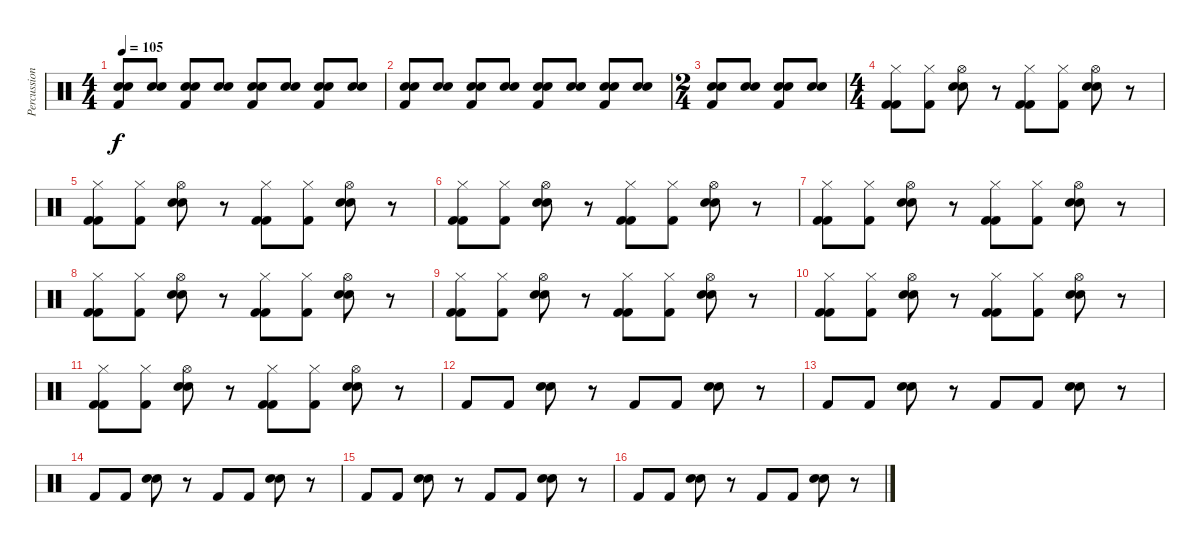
\track ("Percussions" "Percussion") {instrument percussion}
\staff {score}
\articulation defaults
\ts (4 4)
\tempo 105
\clef neutral
\ks c
("Electric Snare (hit)" "Electric Snare (hit)" "Kick (hit) 2").8{dy f} ("Electric Snare (hit)" "Electric Snare (hit)").8 ("Electric Snare (hit)" "Electric Snare (hit)" "Kick (hit) 2").8 ("Electric Snare (hit)" "Electric Snare (hit)").8 ("Electric Snare (hit)" "Electric Snare (hit)" "Kick (hit) 2").8 ("Electric Snare (hit)" "Electric Snare (hit)").8 ("Electric Snare (hit)" "Electric Snare (hit)" "Kick (hit) 2").8 ("Electric Snare (hit)" "Electric Snare (hit)").8 |
("Electric Snare (hit)" "Electric Snare (hit)" "Kick (hit) 2").8 ("Electric Snare (hit)" "Electric Snare (hit)").8 ("Electric Snare (hit)" "Electric Snare (hit)" "Kick (hit) 2").8 ("Electric Snare (hit)" "Electric Snare (hit)").8 ("Electric Snare (hit)" "Electric Snare (hit)" "Kick (hit) 2").8 ("Electric Snare (hit)" "Electric Snare (hit)").8 ("Electric Snare (hit)" "Electric Snare (hit)" "Kick (hit) 2").8 ("Electric Snare (hit)" "Electric Snare (hit)").8 |
\ts (2 4)
("Electric Snare (hit)" "Electric Snare (hit)" "Kick (hit) 2").8 ("Electric Snare (hit)" "Electric Snare (hit)").8 ("Electric Snare (hit)" "Electric Snare (hit)" "Kick (hit) 2").8 ("Electric Snare (hit)" "Electric Snare (hit)").8 |
\ts (4 4)
("Hi-Hat (closed)" "Kick (hit) 2" "Kick (hit) 2").8{volume 12} ("Hi-Hat (closed)" "Kick (hit) 2").8 ("Hi-Hat (open)" "Electric Snare (hit)" "Electric Snare (hit)").8 r.8 ("Hi-Hat (closed)" "Kick (hit) 2" "Kick (hit) 2").8 ("Hi-Hat (closed)" "Kick (hit) 2").8 ("Hi-Hat (open)" "Electric Snare (hit)" "Electric Snare (hit)").8 r.8 |
("Hi-Hat (closed)" "Kick (hit) 2" "Kick (hit) 2").8{volume 12} ("Hi-Hat (closed)" "Kick (hit) 2").8 ("Hi-Hat (open)" "Electric Snare (hit)" "Electric Snare (hit)").8 r.8 ("Hi-Hat (closed)" "Kick (hit) 2" "Kick (hit) 2").8 ("Hi-Hat (closed)" "Kick (hit) 2").8 ("Hi-Hat (open)" "Electric Snare (hit)" "Electric Snare (hit)").8 r.8 |
("Hi-Hat (closed)" "Kick (hit) 2" "Kick (hit) 2").8{volume 12} ("Hi-Hat (closed)" "Kick (hit) 2").8 ("Hi-Hat (open)" "Electric Snare (hit)" "Electric Snare (hit)").8 r.8 ("Hi-Hat (closed)" "Kick (hit) 2" "Kick (hit) 2").8 ("Hi-Hat (closed)" "Kick (hit) 2").8 ("Hi-Hat (open)" "Electric Snare (hit)" "Electric Snare (hit)").8 r.8 |
("Hi-Hat (closed)" "Kick (hit) 2" "Kick (hit) 2").8{volume 12} ("Hi-Hat (closed)" "Kick (hit) 2").8 ("Hi-Hat (open)" "Electric Snare (hit)" "Electric Snare (hit)").8 r.8 ("Hi-Hat (closed)" "Kick (hit) 2" "Kick (hit) 2").8 ("Hi-Hat (closed)" "Kick (hit) 2").8 ("Hi-Hat (open)" "Electric Snare (hit)" "Electric Snare (hit)").8 r.8 |
("Hi-Hat (closed)" "Kick (hit) 2" "Kick (hit) 2").8{volume 12} ("Hi-Hat (closed)" "Kick (hit) 2").8 ("Hi-Hat (open)" "Electric Snare (hit)" "Electric Snare (hit)").8 r.8 ("Hi-Hat (closed)" "Kick (hit) 2" "Kick (hit) 2").8 ("Hi-Hat (closed)" "Kick (hit) 2").8 ("Hi-Hat (open)" "Electric Snare (hit)" "Electric Snare (hit)").8 r.8 |
("Hi-Hat (closed)" "Kick (hit) 2" "Kick (hit) 2").8{volume 12} ("Hi-Hat (closed)" "Kick (hit) 2").8 ("Hi-Hat (open)" "Electric Snare (hit)" "Electric Snare (hit)").8 r.8 ("Hi-Hat (closed)" "Kick (hit) 2" "Kick (hit) 2").8 ("Hi-Hat (closed)" "Kick (hit) 2").8 ("Hi-Hat (open)" "Electric Snare (hit)" "Electric Snare (hit)").8 r.8 |
("Hi-Hat (closed)" "Kick (hit) 2" "Kick (hit) 2").8{volume 12} ("Hi-Hat (closed)" "Kick (hit) 2").8 ("Hi-Hat (open)" "Electric Snare (hit)" "Electric Snare (hit)").8 r.8 ("Hi-Hat (closed)" "Kick (hit) 2" "Kick (hit) 2").8 ("Hi-Hat (closed)" "Kick (hit) 2").8 ("Hi-Hat (open)" "Electric Snare (hit)" "Electric Snare (hit)").8 r.8 |
("Hi-Hat (closed)" "Kick (hit) 2" "Kick (hit) 2").8{volume 12} ("Hi-Hat (closed)" "Kick (hit) 2").8 ("Hi-Hat (open)" "Electric Snare (hit)" "Electric Snare (hit)").8 r.8 ("Hi-Hat (closed)" "Kick (hit) 2" "Kick (hit) 2").8 ("Hi-Hat (closed)" "Kick (hit) 2").8 ("Hi-Hat (open)" "Electric Snare (hit)" "Electric Snare (hit)").8 r.8 |
"Kick (hit) 2".8 "Kick (hit) 2".8 ("Electric Snare (hit)" "Electric Snare (hit)").8 r.8 "Kick (hit) 2".8 "Kick (hit) 2".8 ("Electric Snare (hit)" "Electric Snare (hit)").8 r.8 |
"Kick (hit) 2".8 "Kick (hit) 2".8 ("Electric Snare (hit)" "Electric Snare (hit)").8 r.8 "Kick (hit) 2".8 "Kick (hit) 2".8 ("Electric Snare (hit)" "Electric Snare (hit)").8 r.8 |
"Kick (hit) 2".8 "Kick (hit) 2".8 ("Electric Snare (hit)" "Electric Snare (hit)").8 r.8 "Kick (hit) 2".8 "Kick (hit) 2".8 ("Electric Snare (hit)" "Electric Snare (hit)").8 r.8 |
"Kick (hit) 2".8 "Kick (hit) 2".8 ("Electric Snare (hit)" "Electric Snare (hit)").8 r.8 "Kick (hit) 2".8 "Kick (hit) 2".8 ("Electric Snare (hit)" "Electric Snare (hit)").8 r.8 |
"Kick (hit) 2".8 "Kick (hit) 2".8 ("Electric Snare (hit)" "Electric Snare (hit)").8 r.8 "Kick (hit) 2".8 "Kick (hit) 2".8 ("Electric Snare (hit)" "Electric Snare (hit)").8 r.8
